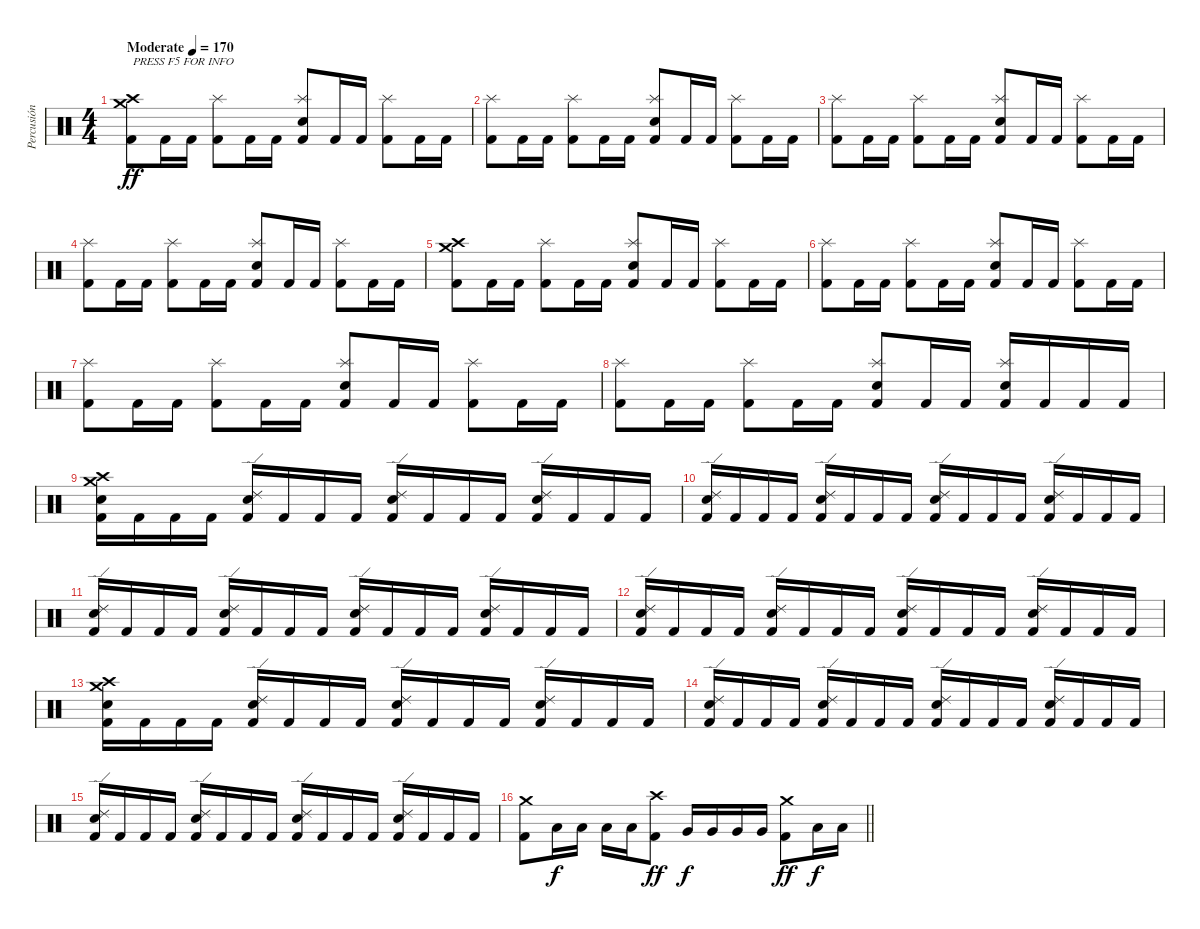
\track ("Percusión" "Percusión") {instrument percussion}
\staff {score}
\articulation defaults
\ts (4 4)
\tempo (170 "Moderate")
\clef neutral
\ks c
("Crash medium (hit)" "Crash high (hit)" "Kick (hit) 2").8{txt "PRESS F5 FOR INFO" dy ff} "Kick (hit) 2".16 "Kick (hit) 2".16 ("Splash (hit)" "Kick (hit) 2").8 "Kick (hit) 2".16 "Kick (hit) 2".16 ("Splash (hit)" "Snare (hit) 2" "Kick (hit) 2").8 "Kick (hit) 2".16 "Kick (hit) 2".16 ("Splash (hit)" "Kick (hit) 2").8 "Kick (hit) 2".16 "Kick (hit) 2".16 |
("Splash (hit)" "Kick (hit) 2").8 "Kick (hit) 2".16 "Kick (hit) 2".16 ("Splash (hit)" "Kick (hit) 2").8 "Kick (hit) 2".16 "Kick (hit) 2".16 ("Splash (hit)" "Snare (hit) 2" "Kick (hit) 2").8 "Kick (hit) 2".16 "Kick (hit) 2".16 ("Splash (hit)" "Kick (hit) 2").8 "Kick (hit) 2".16 "Kick (hit) 2".16 |
("Splash (hit)" "Kick (hit) 2").8 "Kick (hit) 2".16 "Kick (hit) 2".16 ("Splash (hit)" "Kick (hit) 2").8 "Kick (hit) 2".16 "Kick (hit) 2".16 ("Splash (hit)" "Snare (hit) 2" "Kick (hit) 2").8 "Kick (hit) 2".16 "Kick (hit) 2".16 ("Splash (hit)" "Kick (hit) 2").8 "Kick (hit) 2".16 "Kick (hit) 2".16 |
("Splash (hit)" "Kick (hit) 2").8 "Kick (hit) 2".16 "Kick (hit) 2".16 ("Splash (hit)" "Kick (hit) 2").8 "Kick (hit) 2".16 "Kick (hit) 2".16 ("Splash (hit)" "Snare (hit) 2" "Kick (hit) 2").8 "Kick (hit) 2".16 "Kick (hit) 2".16 ("Splash (hit)" "Kick (hit) 2").8 "Kick (hit) 2".16 "Kick (hit) 2".16 |
("Crash medium (hit)" "Crash high (hit)" "Kick (hit) 2").8 "Kick (hit) 2".16 "Kick (hit) 2".16 ("Splash (hit)" "Kick (hit) 2").8 "Kick (hit) 2".16 "Kick (hit) 2".16 ("Splash (hit)" "Snare (hit) 2" "Kick (hit) 2").8 "Kick (hit) 2".16 "Kick (hit) 2".16 ("Splash (hit)" "Kick (hit) 2").8 "Kick (hit) 2".16 "Kick (hit) 2".16 |
("Splash (hit)" "Kick (hit) 2").8 "Kick (hit) 2".16 "Kick (hit) 2".16 ("Splash (hit)" "Kick (hit) 2").8 "Kick (hit) 2".16 "Kick (hit) 2".16 ("Splash (hit)" "Snare (hit) 2" "Kick (hit) 2").8 "Kick (hit) 2".16 "Kick (hit) 2".16 ("Splash (hit)" "Kick (hit) 2").8 "Kick (hit) 2".16 "Kick (hit) 2".16 |
("Splash (hit)" "Kick (hit) 2").8 "Kick (hit) 2".16 "Kick (hit) 2".16 ("Splash (hit)" "Kick (hit) 2").8 "Kick (hit) 2".16 "Kick (hit) 2".16 ("Splash (hit)" "Snare (hit) 2" "Kick (hit) 2").8 "Kick (hit) 2".16 "Kick (hit) 2".16 ("Splash (hit)" "Kick (hit) 2").8 "Kick (hit) 2".16 "Kick (hit) 2".16 |
("Splash (hit)" "Kick (hit) 2").8 "Kick (hit) 2".16 "Kick (hit) 2".16 ("Splash (hit)" "Kick (hit) 2").8 "Kick (hit) 2".16 "Kick (hit) 2".16 ("Splash (hit)" "Snare (hit) 2" "Kick (hit) 2").8 "Kick (hit) 2".16 "Kick (hit) 2".16 ("Splash (hit)" "Snare (hit) 2" "Kick (hit) 2").16 "Kick (hit) 2".16 "Kick (hit) 2".16 "Kick (hit) 2".16 |
("Crash medium (hit)" "Crash high (hit)" "Snare (hit) 2" "Kick (hit) 2").16 "Kick (hit) 2".16 "Kick (hit) 2".16 "Kick (hit) 2".16 ("Ride (edge) 2" "Snare (hit) 2" "Kick (hit) 2").16 "Kick (hit) 2".16 "Kick (hit) 2".16 "Kick (hit) 2".16 ("Ride (edge) 2" "Snare (hit) 2" "Kick (hit) 2").16 "Kick (hit) 2".16 "Kick (hit) 2".16 "Kick (hit) 2".16 ("Ride (edge) 2" "Snare (hit) 2" "Kick (hit) 2").16 "Kick (hit) 2".16 "Kick (hit) 2".16 "Kick (hit) 2".16 |
("Ride (edge) 2" "Snare (hit) 2" "Kick (hit) 2").16 "Kick (hit) 2".16 "Kick (hit) 2".16 "Kick (hit) 2".16 ("Ride (edge) 2" "Snare (hit) 2" "Kick (hit) 2").16 "Kick (hit) 2".16 "Kick (hit) 2".16 "Kick (hit) 2".16 ("Ride (edge) 2" "Snare (hit) 2" "Kick (hit) 2").16 "Kick (hit) 2".16 "Kick (hit) 2".16 "Kick (hit) 2".16 ("Ride (edge) 2" "Snare (hit) 2" "Kick (hit) 2").16 "Kick (hit) 2".16 "Kick (hit) 2".16 "Kick (hit) 2".16 |
("Ride (edge) 2" "Snare (hit) 2" "Kick (hit) 2").16 "Kick (hit) 2".16 "Kick (hit) 2".16 "Kick (hit) 2".16 ("Ride (edge) 2" "Snare (hit) 2" "Kick (hit) 2").16 "Kick (hit) 2".16 "Kick (hit) 2".16 "Kick (hit) 2".16 ("Ride (edge) 2" "Snare (hit) 2" "Kick (hit) 2").16 "Kick (hit) 2".16 "Kick (hit) 2".16 "Kick (hit) 2".16 ("Ride (edge) 2" "Snare (hit) 2" "Kick (hit) 2").16 "Kick (hit) 2".16 "Kick (hit) 2".16 "Kick (hit) 2".16 |
("Ride (edge) 2" "Snare (hit) 2" "Kick (hit) 2").16 "Kick (hit) 2".16 "Kick (hit) 2".16 "Kick (hit) 2".16 ("Ride (edge) 2" "Snare (hit) 2" "Kick (hit) 2").16 "Kick (hit) 2".16 "Kick (hit) 2".16 "Kick (hit) 2".16 ("Ride (edge) 2" "Snare (hit) 2" "Kick (hit) 2").16 "Kick (hit) 2".16 "Kick (hit) 2".16 "Kick (hit) 2".16 ("Ride (edge) 2" "Snare (hit) 2" "Kick (hit) 2").16 "Kick (hit) 2".16 "Kick (hit) 2".16 "Kick (hit) 2".16 |
("Crash medium (hit)" "Crash high (hit)" "Snare (hit) 2" "Kick (hit) 2").16 "Kick (hit) 2".16 "Kick (hit) 2".16 "Kick (hit) 2".16 ("Ride (edge) 2" "Snare (hit) 2" "Kick (hit) 2").16 "Kick (hit) 2".16 "Kick (hit) 2".16 "Kick (hit) 2".16 ("Ride (edge) 2" "Snare (hit) 2" "Kick (hit) 2").16 "Kick (hit) 2".16 "Kick (hit) 2".16 "Kick (hit) 2".16 ("Ride (edge) 2" "Snare (hit) 2" "Kick (hit) 2").16 "Kick (hit) 2".16 "Kick (hit) 2".16 "Kick (hit) 2".16 |
("Ride (edge) 2" "Snare (hit) 2" "Kick (hit) 2").16 "Kick (hit) 2".16 "Kick (hit) 2".16 "Kick (hit) 2".16 ("Ride (edge) 2" "Snare (hit) 2" "Kick (hit) 2").16 "Kick (hit) 2".16 "Kick (hit) 2".16 "Kick (hit) 2".16 ("Ride (edge) 2" "Snare (hit) 2" "Kick (hit) 2").16 "Kick (hit) 2".16 "Kick (hit) 2".16 "Kick (hit) 2".16 ("Ride (edge) 2" "Snare (hit) 2" "Kick (hit) 2").16 "Kick (hit) 2".16 "Kick (hit) 2".16 "Kick (hit) 2".16 |
("Ride (edge) 2" "Snare (hit) 2" "Kick (hit) 2").16 "Kick (hit) 2".16 "Kick (hit) 2".16 "Kick (hit) 2".16 ("Ride (edge) 2" "Snare (hit) 2" "Kick (hit) 2").16 "Kick (hit) 2".16 "Kick (hit) 2".16 "Kick (hit) 2".16 ("Ride (edge) 2" "Snare (hit) 2" "Kick (hit) 2").16 "Kick (hit) 2".16 "Kick (hit) 2".16 "Kick (hit) 2".16 ("Ride (edge) 2" "Snare (hit) 2" "Kick (hit) 2").16 "Kick (hit) 2".16 "Kick (hit) 2".16 "Kick (hit) 2".16 |
\barLineRight lightlight
("Crash medium (hit)" "Kick (hit) 2").8 "Low Tom (hit)".16{dy f} "Low Tom (hit)".16 "Low Tom (hit)".16 "Low Tom (hit)".16 ("Crash high (hit)" "Kick (hit) 2").8{dy ff} "Very Low Tom (hit)".16{dy f} "Very Low Tom (hit)".16 "Very Low Tom (hit)".16 "Very Low Tom (hit)".16 ("Crash medium (hit)" "Kick (hit) 2").8{dy ff} "Low Floor Tom (hit)".16{dy f} "Low Floor Tom (hit)".16
